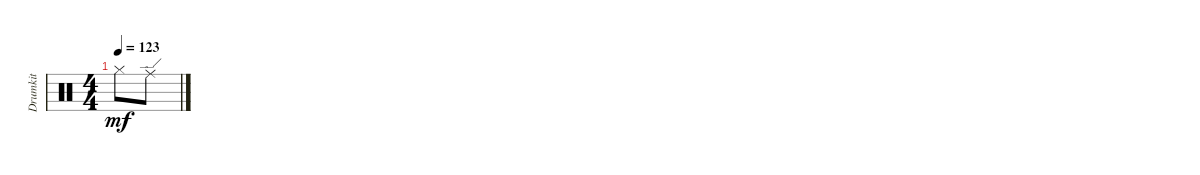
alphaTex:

\defaultSystemsLayout 4
\bracketExtendMode groupsimilarinstruments
\multiTrackTrackNamePolicy hidden
\firstSystemTrackNameMode fullname
\otherSystemsTrackNameMode fullname
\otherSystemsTrackNameOrientation horizontal
\defaultBarNumberDisplay FirstOfSystem
\track ("Drumkit" "Drums") {instrument percussion}
\staff {score}
\articulation defaults
\ts (4 4)
\ac
\tempo 123
\clef neutral
\ks c "Hi-Hat (closed)".8{dy mf} "Ride (edge)".8
